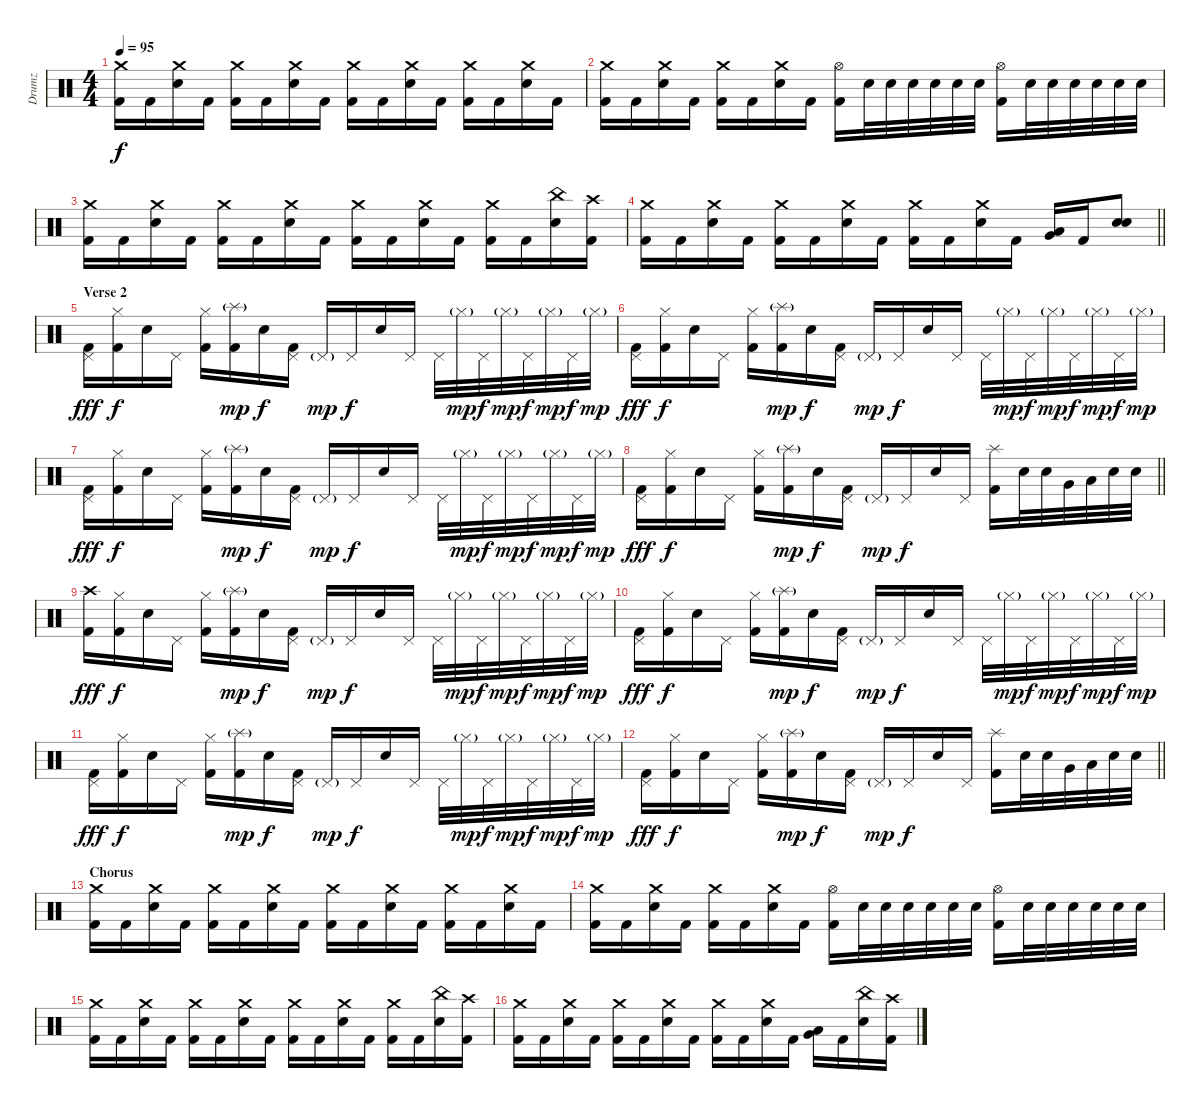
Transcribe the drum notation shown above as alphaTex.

\track ("Drumz" "Drumz") {instrument percussion}
\staff {score}
\articulation defaults
\ts (4 4)
\tempo 95
\clef neutral
\ks c
("Crash medium (hit)" "Kick (hit) 2").16{dy f} "Kick (hit) 2".16 ("Crash medium (hit)" "Electric Snare (hit)").16 "Kick (hit) 2".16 ("Crash medium (hit)" "Kick (hit) 2").16 "Kick (hit) 2".16 ("Crash medium (hit)" "Electric Snare (hit)").16 "Kick (hit) 2".16 ("Crash medium (hit)" "Kick (hit) 2").16 "Kick (hit) 2".16 ("Crash medium (hit)" "Electric Snare (hit)").16 "Kick (hit) 2".16 ("Crash medium (hit)" "Kick (hit) 2").16 "Kick (hit) 2".16 ("Crash medium (hit)" "Electric Snare (hit)").16 "Kick (hit) 2".16 |
("Crash medium (hit)" "Kick (hit) 2").16 "Kick (hit) 2".16 ("Crash medium (hit)" "Electric Snare (hit)").16 "Kick (hit) 2".16 ("Crash medium (hit)" "Kick (hit) 2").16 "Kick (hit) 2".16 ("Crash medium (hit)" "Electric Snare (hit)").16 "Kick (hit) 2".16 ("Hi-Hat (open)" "Kick (hit) 2").16 "Electric Snare (hit)".32 "Electric Snare (hit)".32 "Electric Snare (hit)".32 "Electric Snare (hit)".32 "Electric Snare (hit)".32 "Electric Snare (hit)".32 ("Hi-Hat (open)" "Kick (hit) 2").16 "Electric Snare (hit)".32 "Electric Snare (hit)".32 "Electric Snare (hit)".32 "Electric Snare (hit)".32 "Electric Snare (hit)".32 "Electric Snare (hit)".32 |
("Crash medium (hit)" "Kick (hit) 2").16 "Kick (hit) 2".16 ("Crash medium (hit)" "Electric Snare (hit)").16 "Kick (hit) 2".16 ("Crash medium (hit)" "Kick (hit) 2").16 "Kick (hit) 2".16 ("Crash medium (hit)" "Electric Snare (hit)").16 "Kick (hit) 2".16 ("Crash medium (hit)" "Kick (hit) 2").16 "Kick (hit) 2".16 ("Crash medium (hit)" "Electric Snare (hit)").16 "Kick (hit) 2".16 ("Crash medium (hit)" "Kick (hit) 2").16 "Kick (hit) 2".16 ("China (hit)" "Electric Snare (hit)").16 ("Crash high (hit)" "Kick (hit) 2").16 |
\barLineRight lightlight
("Crash medium (hit)" "Kick (hit) 2").16 "Kick (hit) 2".16 ("Crash medium (hit)" "Electric Snare (hit)").16 "Kick (hit) 2".16 ("Crash medium (hit)" "Kick (hit) 2").16 "Kick (hit) 2".16 ("Crash medium (hit)" "Electric Snare (hit)").16 "Kick (hit) 2".16 ("Crash medium (hit)" "Kick (hit) 2").16 "Kick (hit) 2".16 ("Crash medium (hit)" "Electric Snare (hit)").16 "Kick (hit) 2".16 ("Very Low Tom (hit)" "Low Floor Tom (hit)").16 "Kick (hit) 2".16 ("Electric Snare (hit)" "Electric Snare (hit)").8 |
\section ("" "Verse 2")
("Pedal Hi-Hat (hit)" "Kick (hit) 2").16{dy fff} ("Hi-Hat (closed)" "Kick (hit) 2").16{dy f} "Electric Snare (hit)".16 "Pedal Hi-Hat (hit)".16 ("Hi-Hat (closed)" "Kick (hit) 2").16 ("Splash (hit)"{g} "Kick (hit) 2").16{dy mp} "Electric Snare (hit)".16{dy f} ("Pedal Hi-Hat (hit)" "Kick (hit) 2").16 "Pedal Hi-Hat (hit)"{g}.16{dy mp} "Pedal Hi-Hat (hit)".16{dy f} "Electric Snare (hit)".16 "Pedal Hi-Hat (hit)".16 "Pedal Hi-Hat (hit)".32 "Hi-Hat (closed)"{g}.32{dy mp} "Pedal Hi-Hat (hit)".32{dy f} "Hi-Hat (closed)"{g}.32{dy mp} "Pedal Hi-Hat (hit)".32{dy f} "Hi-Hat (closed)"{g}.32{dy mp} "Pedal Hi-Hat (hit)".32{dy f} "Hi-Hat (closed)"{g}.32{dy mp} |
("Pedal Hi-Hat (hit)" "Kick (hit) 2").16{dy fff} ("Hi-Hat (closed)" "Kick (hit) 2").16{dy f} "Electric Snare (hit)".16 "Pedal Hi-Hat (hit)".16 ("Hi-Hat (closed)" "Kick (hit) 2").16 ("Splash (hit)"{g} "Kick (hit) 2").16{dy mp} "Electric Snare (hit)".16{dy f} ("Pedal Hi-Hat (hit)" "Kick (hit) 2").16 "Pedal Hi-Hat (hit)"{g}.16{dy mp} "Pedal Hi-Hat (hit)".16{dy f} "Electric Snare (hit)".16 "Pedal Hi-Hat (hit)".16 "Pedal Hi-Hat (hit)".32 "Hi-Hat (closed)"{g}.32{dy mp} "Pedal Hi-Hat (hit)".32{dy f} "Hi-Hat (closed)"{g}.32{dy mp} "Pedal Hi-Hat (hit)".32{dy f} "Hi-Hat (closed)"{g}.32{dy mp} "Pedal Hi-Hat (hit)".32{dy f} "Hi-Hat (closed)"{g}.32{dy mp} |
("Pedal Hi-Hat (hit)" "Kick (hit) 2").16{dy fff} ("Hi-Hat (closed)" "Kick (hit) 2").16{dy f} "Electric Snare (hit)".16 "Pedal Hi-Hat (hit)".16 ("Hi-Hat (closed)" "Kick (hit) 2").16 ("Splash (hit)"{g} "Kick (hit) 2").16{dy mp} "Electric Snare (hit)".16{dy f} ("Pedal Hi-Hat (hit)" "Kick (hit) 2").16 "Pedal Hi-Hat (hit)"{g}.16{dy mp} "Pedal Hi-Hat (hit)".16{dy f} "Electric Snare (hit)".16 "Pedal Hi-Hat (hit)".16 "Pedal Hi-Hat (hit)".32 "Hi-Hat (closed)"{g}.32{dy mp} "Pedal Hi-Hat (hit)".32{dy f} "Hi-Hat (closed)"{g}.32{dy mp} "Pedal Hi-Hat (hit)".32{dy f} "Hi-Hat (closed)"{g}.32{dy mp} "Pedal Hi-Hat (hit)".32{dy f} "Hi-Hat (closed)"{g}.32{dy mp} |
\barLineRight lightlight
("Pedal Hi-Hat (hit)" "Kick (hit) 2").16{dy fff} ("Hi-Hat (closed)" "Kick (hit) 2").16{dy f} "Electric Snare (hit)".16 "Pedal Hi-Hat (hit)".16 ("Hi-Hat (closed)" "Kick (hit) 2").16 ("Splash (hit)"{g} "Kick (hit) 2").16{dy mp} "Electric Snare (hit)".16{dy f} ("Pedal Hi-Hat (hit)" "Kick (hit) 2").16 "Pedal Hi-Hat (hit)"{g}.16{dy mp} "Pedal Hi-Hat (hit)".16{dy f} "Electric Snare (hit)".16 "Pedal Hi-Hat (hit)".16 ("Splash (hit)" "Kick (hit) 2").16 "Electric Snare (hit)".32 "Electric Snare (hit)".32 "Very Low Tom (hit)".32 "Low Floor Tom (hit)".32 "Electric Snare (hit)".32 "Electric Snare (hit)".32 |
("Crash high (hit)" "Kick (hit) 2").16{dy fff} ("Hi-Hat (closed)" "Kick (hit) 2").16{dy f} "Electric Snare (hit)".16 "Pedal Hi-Hat (hit)".16 ("Hi-Hat (closed)" "Kick (hit) 2").16 ("Splash (hit)"{g} "Kick (hit) 2").16{dy mp} "Electric Snare (hit)".16{dy f} ("Pedal Hi-Hat (hit)" "Kick (hit) 2").16 "Pedal Hi-Hat (hit)"{g}.16{dy mp} "Pedal Hi-Hat (hit)".16{dy f} "Electric Snare (hit)".16 "Pedal Hi-Hat (hit)".16 "Pedal Hi-Hat (hit)".32 "Hi-Hat (closed)"{g}.32{dy mp} "Pedal Hi-Hat (hit)".32{dy f} "Hi-Hat (closed)"{g}.32{dy mp} "Pedal Hi-Hat (hit)".32{dy f} "Hi-Hat (closed)"{g}.32{dy mp} "Pedal Hi-Hat (hit)".32{dy f} "Hi-Hat (closed)"{g}.32{dy mp} |
("Pedal Hi-Hat (hit)" "Kick (hit) 2").16{dy fff} ("Hi-Hat (closed)" "Kick (hit) 2").16{dy f} "Electric Snare (hit)".16 "Pedal Hi-Hat (hit)".16 ("Hi-Hat (closed)" "Kick (hit) 2").16 ("Splash (hit)"{g} "Kick (hit) 2").16{dy mp} "Electric Snare (hit)".16{dy f} ("Pedal Hi-Hat (hit)" "Kick (hit) 2").16 "Pedal Hi-Hat (hit)"{g}.16{dy mp} "Pedal Hi-Hat (hit)".16{dy f} "Electric Snare (hit)".16 "Pedal Hi-Hat (hit)".16 "Pedal Hi-Hat (hit)".32 "Hi-Hat (closed)"{g}.32{dy mp} "Pedal Hi-Hat (hit)".32{dy f} "Hi-Hat (closed)"{g}.32{dy mp} "Pedal Hi-Hat (hit)".32{dy f} "Hi-Hat (closed)"{g}.32{dy mp} "Pedal Hi-Hat (hit)".32{dy f} "Hi-Hat (closed)"{g}.32{dy mp} |
("Pedal Hi-Hat (hit)" "Kick (hit) 2").16{dy fff} ("Hi-Hat (closed)" "Kick (hit) 2").16{dy f} "Electric Snare (hit)".16 "Pedal Hi-Hat (hit)".16 ("Hi-Hat (closed)" "Kick (hit) 2").16 ("Splash (hit)"{g} "Kick (hit) 2").16{dy mp} "Electric Snare (hit)".16{dy f} ("Pedal Hi-Hat (hit)" "Kick (hit) 2").16 "Pedal Hi-Hat (hit)"{g}.16{dy mp} "Pedal Hi-Hat (hit)".16{dy f} "Electric Snare (hit)".16 "Pedal Hi-Hat (hit)".16 "Pedal Hi-Hat (hit)".32 "Hi-Hat (closed)"{g}.32{dy mp} "Pedal Hi-Hat (hit)".32{dy f} "Hi-Hat (closed)"{g}.32{dy mp} "Pedal Hi-Hat (hit)".32{dy f} "Hi-Hat (closed)"{g}.32{dy mp} "Pedal Hi-Hat (hit)".32{dy f} "Hi-Hat (closed)"{g}.32{dy mp} |
\barLineRight lightlight
("Pedal Hi-Hat (hit)" "Kick (hit) 2").16{dy fff} ("Hi-Hat (closed)" "Kick (hit) 2").16{dy f} "Electric Snare (hit)".16 "Pedal Hi-Hat (hit)".16 ("Hi-Hat (closed)" "Kick (hit) 2").16 ("Splash (hit)"{g} "Kick (hit) 2").16{dy mp} "Electric Snare (hit)".16{dy f} ("Pedal Hi-Hat (hit)" "Kick (hit) 2").16 "Pedal Hi-Hat (hit)"{g}.16{dy mp} "Pedal Hi-Hat (hit)".16{dy f} "Electric Snare (hit)".16 "Pedal Hi-Hat (hit)".16 ("Splash (hit)" "Kick (hit) 2").16 "Electric Snare (hit)".32 "Electric Snare (hit)".32 "Very Low Tom (hit)".32 "Low Floor Tom (hit)".32 "Electric Snare (hit)".32 "Electric Snare (hit)".32 |
\section ("" "Chorus")
("Crash medium (hit)" "Kick (hit) 2").16 "Kick (hit) 2".16 ("Crash medium (hit)" "Electric Snare (hit)").16 "Kick (hit) 2".16 ("Crash medium (hit)" "Kick (hit) 2").16 "Kick (hit) 2".16 ("Crash medium (hit)" "Electric Snare (hit)").16 "Kick (hit) 2".16 ("Crash medium (hit)" "Kick (hit) 2").16 "Kick (hit) 2".16 ("Crash medium (hit)" "Electric Snare (hit)").16 "Kick (hit) 2".16 ("Crash medium (hit)" "Kick (hit) 2").16 "Kick (hit) 2".16 ("Crash medium (hit)" "Electric Snare (hit)").16 "Kick (hit) 2".16 |
("Crash medium (hit)" "Kick (hit) 2").16 "Kick (hit) 2".16 ("Crash medium (hit)" "Electric Snare (hit)").16 "Kick (hit) 2".16 ("Crash medium (hit)" "Kick (hit) 2").16 "Kick (hit) 2".16 ("Crash medium (hit)" "Electric Snare (hit)").16 "Kick (hit) 2".16 ("Hi-Hat (open)" "Kick (hit) 2").16 "Electric Snare (hit)".32 "Electric Snare (hit)".32 "Electric Snare (hit)".32 "Electric Snare (hit)".32 "Electric Snare (hit)".32 "Electric Snare (hit)".32 ("Hi-Hat (open)" "Kick (hit) 2").16 "Electric Snare (hit)".32 "Electric Snare (hit)".32 "Electric Snare (hit)".32 "Electric Snare (hit)".32 "Electric Snare (hit)".32 "Electric Snare (hit)".32 |
("Crash medium (hit)" "Kick (hit) 2").16 "Kick (hit) 2".16 ("Crash medium (hit)" "Electric Snare (hit)").16 "Kick (hit) 2".16 ("Crash medium (hit)" "Kick (hit) 2").16 "Kick (hit) 2".16 ("Crash medium (hit)" "Electric Snare (hit)").16 "Kick (hit) 2".16 ("Crash medium (hit)" "Kick (hit) 2").16 "Kick (hit) 2".16 ("Crash medium (hit)" "Electric Snare (hit)").16 "Kick (hit) 2".16 ("Crash medium (hit)" "Kick (hit) 2").16 "Kick (hit) 2".16 ("China (hit)" "Electric Snare (hit)").16 ("Crash high (hit)" "Kick (hit) 2").16 |
("Crash medium (hit)" "Kick (hit) 2").16 "Kick (hit) 2".16 ("Crash medium (hit)" "Electric Snare (hit)").16 "Kick (hit) 2".16 ("Crash medium (hit)" "Kick (hit) 2").16 "Kick (hit) 2".16 ("Crash medium (hit)" "Electric Snare (hit)").16 "Kick (hit) 2".16 ("Crash medium (hit)" "Kick (hit) 2").16 "Kick (hit) 2".16 ("Crash medium (hit)" "Electric Snare (hit)").16 "Kick (hit) 2".16 ("Very Low Tom (hit)" "Low Floor Tom (hit)").16 "Kick (hit) 2".16 ("China (hit)" "Electric Snare (hit)").16 ("Crash high (hit)" "Kick (hit) 2").16
